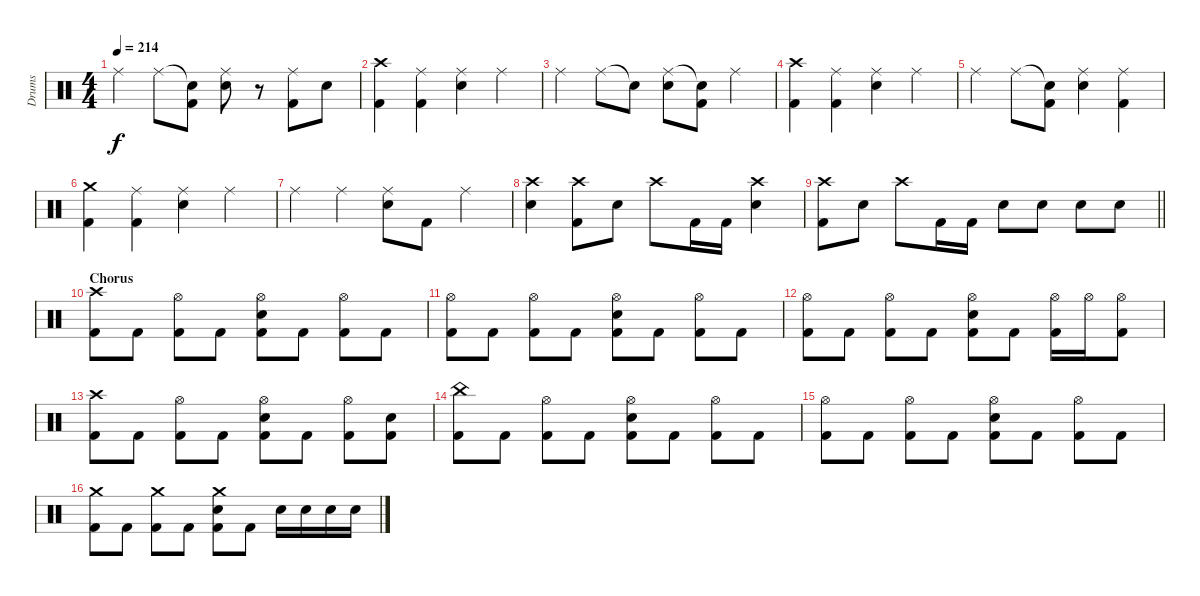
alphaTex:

\track ("Drums" "Drums") {instrument percussion}
\staff {score}
\articulation defaults
\ts (4 4)
\tempo 214
\clef neutral
\ks c "Ride (middle)".4{dy f} "Ride (middle)".8
("Snare (hit)"{t} "Kick (hit) 2").8 ("Ride (middle)" "Snare (hit) 2").8 r.8 ("Ride (middle)" "Kick (hit) 2").8 "Snare (hit) 2".8 |
("Crash high (hit)" "Kick (hit) 2").4 ("Ride (middle)" "Kick (hit) 2").4 ("Ride (middle)" "Snare (hit) 2").4 "Ride (middle)".4 |
"Ride (middle)".4 "Ride (middle)".8 "Snare (hit)"{t}.8 ("Ride (middle)" "Snare (hit) 2").8 ("Snare (hit)"{t} "Kick (hit) 2").8 "Ride (middle)".4 |
("Crash high (hit)" "Kick (hit) 2").4 ("Ride (middle)" "Kick (hit) 2").4 ("Ride (middle)" "Snare (hit) 2").4 "Ride (middle)".4 |
"Ride (middle)".4 "Ride (middle)".8 ("Snare (hit)"{t} "Kick (hit) 2").8 ("Ride (middle)" "Snare (hit) 2").4 ("Ride (middle)" "Kick (hit) 2").4 |
("Crash medium (hit)" "Kick (hit) 2").4 ("Ride (middle)" "Kick (hit) 2").4 ("Ride (middle)" "Snare (hit) 2").4 "Ride (middle)".4 |
"Ride (middle)".4 "Ride (middle)".4 ("Ride (middle)" "Snare (hit) 2").8 "Kick (hit) 2".8 "Ride (middle)".4 |
("Crash high (hit)" "Snare (hit) 2").4 ("Crash high (hit)" "Kick (hit) 2").8 "Snare (hit) 2".8 "Crash high (hit)".8 "Kick (hit) 2".16 "Kick (hit) 2".16 ("Crash high (hit)" "Snare (hit) 2").4 |
\barLineRight lightlight
("Crash high (hit)" "Kick (hit) 2").8 "Snare (hit) 2".8 "Crash high (hit)".8 "Kick (hit) 2".16 "Kick (hit) 2".16 "Snare (hit) 2".8 "Snare (hit) 2".8 "Snare (hit) 2".8 "Snare (hit) 2".8 |
\section ("" "Chorus")
("Crash high (hit)" "Kick (hit) 2").8 "Kick (hit) 2".8 ("Hi-Hat (open)" "Kick (hit) 2").8 "Kick (hit) 2".8 ("Hi-Hat (open)" "Snare (hit) 2" "Kick (hit) 2").8 "Kick (hit) 2".8 ("Hi-Hat (open)" "Kick (hit) 2").8 "Kick (hit) 2".8 |
("Hi-Hat (open)" "Kick (hit) 2").8 "Kick (hit) 2".8 ("Hi-Hat (open)" "Kick (hit) 2").8 "Kick (hit) 2".8 ("Hi-Hat (open)" "Snare (hit) 2" "Kick (hit) 2").8 "Kick (hit) 2".8 ("Hi-Hat (open)" "Kick (hit) 2").8 "Kick (hit) 2".8 |
("Hi-Hat (open)" "Kick (hit) 2").8 "Kick (hit) 2".8 ("Hi-Hat (open)" "Kick (hit) 2").8 "Kick (hit) 2".8 ("Hi-Hat (open)" "Snare (hit) 2" "Kick (hit) 2").8 "Kick (hit) 2".8 ("Hi-Hat (open)" "Kick (hit) 2").16 "Hi-Hat (open)".16 ("Hi-Hat (open)" "Kick (hit) 2").8 |
("Crash high (hit)" "Kick (hit) 2").8 "Kick (hit) 2".8 ("Hi-Hat (open)" "Kick (hit) 2").8 "Kick (hit) 2".8 ("Hi-Hat (open)" "Snare (hit) 2" "Kick (hit) 2").8 "Kick (hit) 2".8 ("Hi-Hat (open)" "Kick (hit) 2").8 ("Snare (hit) 2" "Kick (hit) 2").8 |
("China (hit)" "Kick (hit) 2").8 "Kick (hit) 2".8 ("Hi-Hat (open)" "Kick (hit) 2").8 "Kick (hit) 2".8 ("Hi-Hat (open)" "Snare (hit) 2" "Kick (hit) 2").8 "Kick (hit) 2".8 ("Hi-Hat (open)" "Kick (hit) 2").8 "Kick (hit) 2".8 |
("Hi-Hat (open)" "Kick (hit) 2").8 "Kick (hit) 2".8 ("Hi-Hat (open)" "Kick (hit) 2").8 "Kick (hit) 2".8 ("Hi-Hat (open)" "Snare (hit) 2" "Kick (hit) 2").8 "Kick (hit) 2".8 ("Hi-Hat (open)" "Kick (hit) 2").8 "Kick (hit) 2".8 |
("Crash medium (hit)" "Kick (hit) 2").8 "Kick (hit) 2".8 ("Crash medium (hit)" "Kick (hit) 2").8 "Kick (hit) 2".8 ("Crash medium (hit)" "Snare (hit) 2" "Kick (hit) 2").8 "Kick (hit) 2".8 "Snare (hit) 2".16 "Snare (hit) 2".16 "Snare (hit) 2".16 "Snare (hit) 2".16
